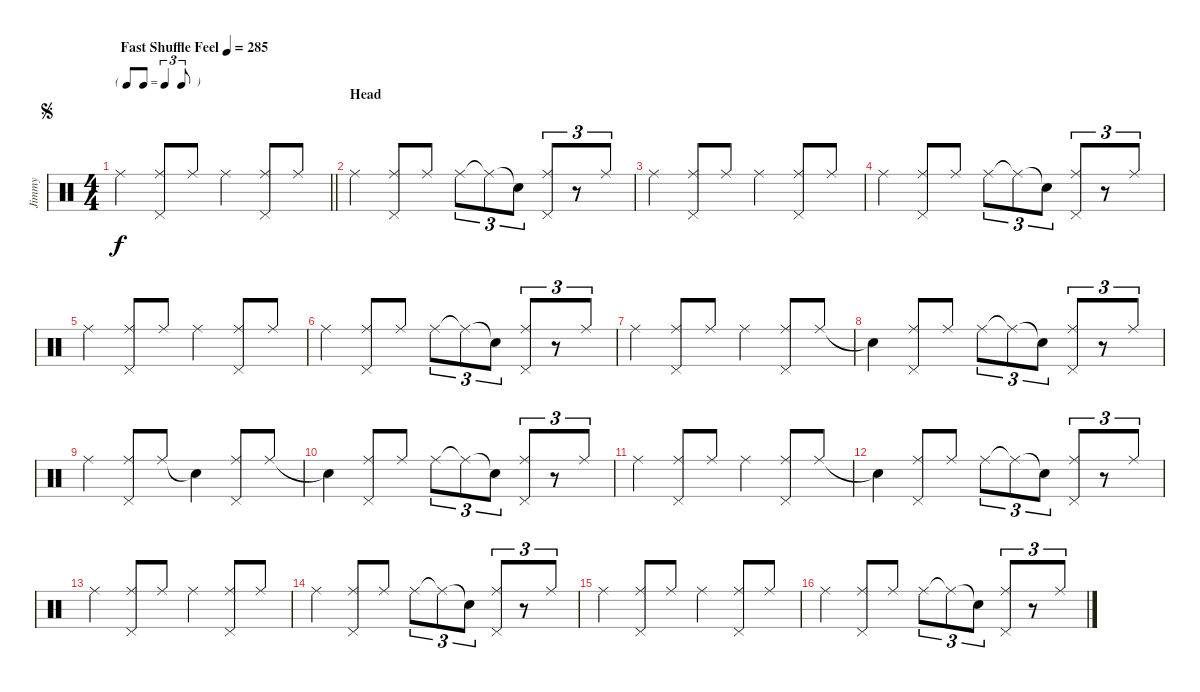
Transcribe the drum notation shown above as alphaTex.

\track ("Jimmy" "Jimmy") {instrument percussion}
\staff {score}
\articulation defaults
\ts (4 4)
\tf triplet8th
\jump segno
\tempo (285 "Fast Shuffle Feel")
\clef neutral
\barLineRight lightlight
\ks c "Ride (middle)".4{dy f}
("Ride (middle)" "Pedal Hi-Hat (hit)").8 "Ride (middle)".8 "Ride (middle)".4 ("Ride (middle)" "Pedal Hi-Hat (hit)").8 "Ride (middle)".8 |
\section ("" "Head")
"Ride (middle)".4 ("Ride (middle)" "Pedal Hi-Hat (hit)").8 "Ride (middle)".8 "Ride (middle)".8{tu (3 2)} "Ride (middle)"{t}.8{tu (3 2)} "Snare (hit)"{t}.8{tu (3 2)} ("Ride (middle)" "Pedal Hi-Hat (hit)").8{tu (3 2)} r.8{tu (3 2)} "Ride (middle)".8{tu (3 2)} |
"Ride (middle)".4 ("Ride (middle)" "Pedal Hi-Hat (hit)").8 "Ride (middle)".8 "Ride (middle)".4 ("Ride (middle)" "Pedal Hi-Hat (hit)").8 "Ride (middle)".8 |
"Ride (middle)".4 ("Ride (middle)" "Pedal Hi-Hat (hit)").8 "Ride (middle)".8 "Ride (middle)".8{tu (3 2)} "Ride (middle)"{t}.8{tu (3 2)} "Snare (hit)"{t}.8{tu (3 2)} ("Ride (middle)" "Pedal Hi-Hat (hit)").8{tu (3 2)} r.8{tu (3 2)} "Ride (middle)".8{tu (3 2)} |
"Ride (middle)".4 ("Ride (middle)" "Pedal Hi-Hat (hit)").8 "Ride (middle)".8 "Ride (middle)".4 ("Ride (middle)" "Pedal Hi-Hat (hit)").8 "Ride (middle)".8 |
"Ride (middle)".4 ("Ride (middle)" "Pedal Hi-Hat (hit)").8 "Ride (middle)".8 "Ride (middle)".8{tu (3 2)} "Ride (middle)"{t}.8{tu (3 2)} "Snare (hit)"{t}.8{tu (3 2)} ("Ride (middle)" "Pedal Hi-Hat (hit)").8{tu (3 2)} r.8{tu (3 2)} "Ride (middle)".8{tu (3 2)} |
"Ride (middle)".4 ("Ride (middle)" "Pedal Hi-Hat (hit)").8 "Ride (middle)".8 "Ride (middle)".4 ("Ride (middle)" "Pedal Hi-Hat (hit)").8 "Ride (middle)".8 |
"Snare (hit)"{t}.4 ("Ride (middle)" "Pedal Hi-Hat (hit)").8 "Ride (middle)".8 "Ride (middle)".8{tu (3 2)} "Ride (middle)"{t}.8{tu (3 2)} "Snare (hit)"{t}.8{tu (3 2)} ("Ride (middle)" "Pedal Hi-Hat (hit)").8{tu (3 2)} r.8{tu (3 2)} "Ride (middle)".8{tu (3 2)} |
"Ride (middle)".4 ("Ride (middle)" "Pedal Hi-Hat (hit)").8 "Ride (middle)".8 "Snare (hit)"{t}.4 ("Ride (middle)" "Pedal Hi-Hat (hit)").8 "Ride (middle)".8 |
"Snare (hit)"{t}.4 ("Ride (middle)" "Pedal Hi-Hat (hit)").8 "Ride (middle)".8 "Ride (middle)".8{tu (3 2)} "Ride (middle)"{t}.8{tu (3 2)} "Snare (hit)"{t}.8{tu (3 2)} ("Ride (middle)" "Pedal Hi-Hat (hit)").8{tu (3 2)} r.8{tu (3 2)} "Ride (middle)".8{tu (3 2)} |
"Ride (middle)".4 ("Ride (middle)" "Pedal Hi-Hat (hit)").8 "Ride (middle)".8 "Ride (middle)".4 ("Ride (middle)" "Pedal Hi-Hat (hit)").8 "Ride (middle)".8 |
"Snare (hit)"{t}.4 ("Ride (middle)" "Pedal Hi-Hat (hit)").8 "Ride (middle)".8 "Ride (middle)".8{tu (3 2)} "Ride (middle)"{t}.8{tu (3 2)} "Snare (hit)"{t}.8{tu (3 2)} ("Ride (middle)" "Pedal Hi-Hat (hit)").8{tu (3 2)} r.8{tu (3 2)} "Ride (middle)".8{tu (3 2)} |
"Ride (middle)".4 ("Ride (middle)" "Pedal Hi-Hat (hit)").8 "Ride (middle)".8 "Ride (middle)".4 ("Ride (middle)" "Pedal Hi-Hat (hit)").8 "Ride (middle)".8 |
"Ride (middle)".4 ("Ride (middle)" "Pedal Hi-Hat (hit)").8 "Ride (middle)".8 "Ride (middle)".8{tu (3 2)} "Ride (middle)"{t}.8{tu (3 2)} "Snare (hit)"{t}.8{tu (3 2)} ("Ride (middle)" "Pedal Hi-Hat (hit)").8{tu (3 2)} r.8{tu (3 2)} "Ride (middle)".8{tu (3 2)} |
"Ride (middle)".4 ("Ride (middle)" "Pedal Hi-Hat (hit)").8 "Ride (middle)".8 "Ride (middle)".4 ("Ride (middle)" "Pedal Hi-Hat (hit)").8 "Ride (middle)".8 |
"Ride (middle)".4 ("Ride (middle)" "Pedal Hi-Hat (hit)").8 "Ride (middle)".8 "Ride (middle)".8{tu (3 2)} "Ride (middle)"{t}.8{tu (3 2)} "Snare (hit)"{t}.8{tu (3 2)} ("Ride (middle)" "Pedal Hi-Hat (hit)").8{tu (3 2)} r.8{tu (3 2)} "Ride (middle)".8{tu (3 2)}
